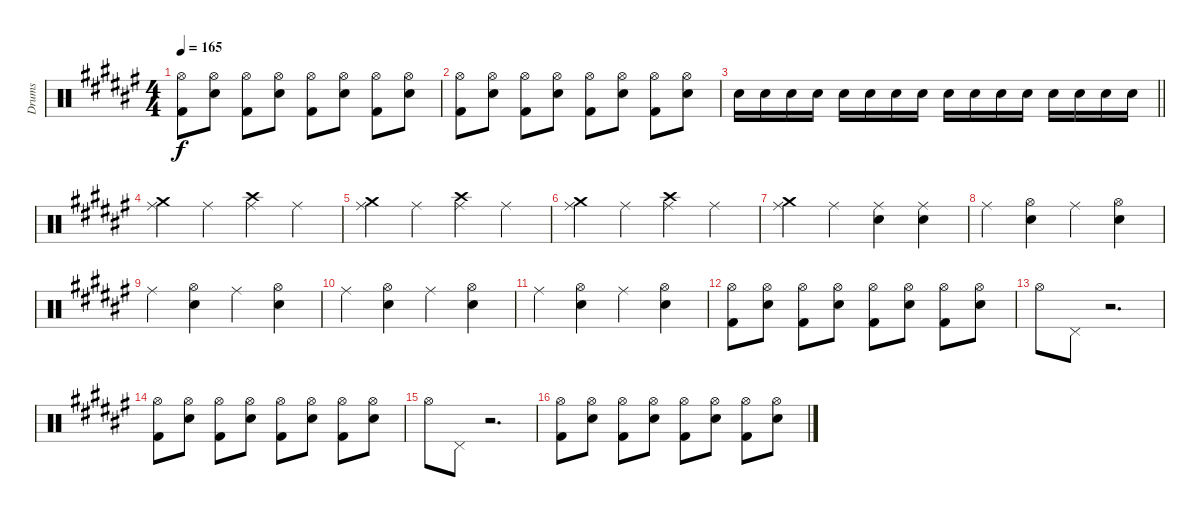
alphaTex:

\track ("Drums" "Drums") {instrument percussion}
\staff {score}
\articulation defaults
\ts (4 4)
\tempo 165
\clef neutral
\ks d#minor
("Hi-Hat (open)" "Kick (hit) 2").8{dy f} ("Hi-Hat (open)" "Electric Snare (hit)").8 ("Hi-Hat (open)" "Kick (hit) 2").8 ("Hi-Hat (open)" "Electric Snare (hit)").8 ("Hi-Hat (open)" "Kick (hit) 2").8 ("Hi-Hat (open)" "Electric Snare (hit)").8 ("Hi-Hat (open)" "Kick (hit) 2").8 ("Hi-Hat (open)" "Electric Snare (hit)").8 |
("Hi-Hat (open)" "Kick (hit) 2").8 ("Hi-Hat (open)" "Electric Snare (hit)").8 ("Hi-Hat (open)" "Kick (hit) 2").8 ("Hi-Hat (open)" "Electric Snare (hit)").8 ("Hi-Hat (open)" "Kick (hit) 2").8 ("Hi-Hat (open)" "Electric Snare (hit)").8 ("Hi-Hat (open)" "Kick (hit) 2").8 ("Hi-Hat (open)" "Electric Snare (hit)").8 |
\barLineRight lightlight "Electric Snare (hit)".16 "Electric Snare (hit)".16 "Electric Snare (hit)".16 "Electric Snare (hit)".16 "Electric Snare (hit)".16 "Electric Snare (hit)".16 "Electric Snare (hit)".16 "Electric Snare (hit)".16 "Electric Snare (hit)".16 "Electric Snare (hit)".16 "Electric Snare (hit)".16 "Electric Snare (hit)".16 "Electric Snare (hit)".16 "Electric Snare (hit)".16 "Electric Snare (hit)".16 "Electric Snare (hit)".16
|
\ks f#
("Ride (middle)" "Crash medium (hit)").4 "Ride (middle)".4 ("Ride (middle)" "Crash high (hit)").4 "Ride (middle)".4 |
\ks d#minor
("Ride (middle)" "Crash medium (hit)").4 "Ride (middle)".4 ("Ride (middle)" "Crash high (hit)").4 "Ride (middle)".4 |
\ks f#
("Ride (middle)" "Crash medium (hit)").4 "Ride (middle)".4 ("Ride (middle)" "Crash high (hit)").4 "Ride (middle)".4 |
\ks d#minor
("Ride (middle)" "Crash medium (hit)").4 "Ride (middle)".4 ("Ride (middle)" "Electric Snare (hit)").4 ("Ride (middle)" "Electric Snare (hit)").4 |
\ks f# "Ride (middle)".4
("Hi-Hat (open)" "Electric Snare (hit)").4 "Ride (middle)".4 ("Hi-Hat (open)" "Electric Snare (hit)").4 |
"Ride (middle)".4 ("Hi-Hat (open)" "Electric Snare (hit)").4 "Ride (middle)".4 ("Hi-Hat (open)" "Electric Snare (hit)").4 |
"Ride (middle)".4 ("Hi-Hat (open)" "Electric Snare (hit)").4 "Ride (middle)".4 ("Hi-Hat (open)" "Electric Snare (hit)").4 |
"Ride (middle)".4 ("Hi-Hat (open)" "Electric Snare (hit)").4 "Ride (middle)".4 ("Hi-Hat (open)" "Electric Snare (hit)").4 |
\ks d#minor
("Hi-Hat (open)" "Kick (hit) 2").8 ("Hi-Hat (open)" "Electric Snare (hit)").8 ("Hi-Hat (open)" "Kick (hit) 2").8 ("Hi-Hat (open)" "Electric Snare (hit)").8 ("Hi-Hat (open)" "Kick (hit) 2").8 ("Hi-Hat (open)" "Electric Snare (hit)").8 ("Hi-Hat (open)" "Kick (hit) 2").8 ("Hi-Hat (open)" "Electric Snare (hit)").8 |
"Hi-Hat (open)".8 "Pedal Hi-Hat (hit)".8 r.2{d} |
("Hi-Hat (open)" "Kick (hit) 2").8 ("Hi-Hat (open)" "Electric Snare (hit)").8 ("Hi-Hat (open)" "Kick (hit) 2").8 ("Hi-Hat (open)" "Electric Snare (hit)").8 ("Hi-Hat (open)" "Kick (hit) 2").8 ("Hi-Hat (open)" "Electric Snare (hit)").8 ("Hi-Hat (open)" "Kick (hit) 2").8 ("Hi-Hat (open)" "Electric Snare (hit)").8 |
"Hi-Hat (open)".8 "Pedal Hi-Hat (hit)".8 r.2{d} |
("Hi-Hat (open)" "Kick (hit) 2").8 ("Hi-Hat (open)" "Electric Snare (hit)").8 ("Hi-Hat (open)" "Kick (hit) 2").8 ("Hi-Hat (open)" "Electric Snare (hit)").8 ("Hi-Hat (open)" "Kick (hit) 2").8 ("Hi-Hat (open)" "Electric Snare (hit)").8 ("Hi-Hat (open)" "Kick (hit) 2").8 ("Hi-Hat (open)" "Electric Snare (hit)").8
